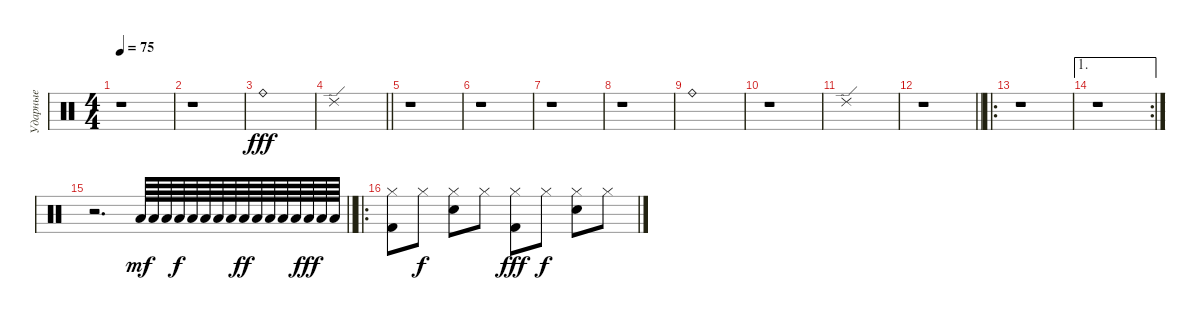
\track ("Ударные" "Ударные") {instrument percussion}
\staff
\articulation defaults
\ts (4 4)
\tempo 75
\clef neutral
\ks c
r.1{dy fff} |
r.1 |
"Ride (bell)".1 |
\barLineRight lightlight "Ride (edge) 2".1
|
r.1 |
r.1 |
r.1 |
r.1 |
"Ride (bell)".1 |
r.1 |
"Ride (edge) 2".1 |
\barLineRight lightlight
r.1 |
\ro
r.1 |
\ae 1
\rc 2
r.1 |
\barLineRight lightlight
r.2{d} "Low Tom (hit)".64{dy mf} "Low Tom (hit)".64 "Low Tom (hit)".64 "Low Tom (hit)".64{dy f} "Low Tom (hit)".64 "Low Tom (hit)".64 "Low Tom (hit)".64 "Low Tom (hit)".64 "Low Tom (hit)".64{dy ff} "Low Tom (hit)".64 "Low Tom (hit)".64 "Low Tom (hit)".64 "Low Tom (hit)".64 "Low Tom (hit)".64{dy fff} "Low Tom (hit)".64 "Low Tom (hit)".64 |
\ro
("Kick (hit) 2" "Hi-Hat (closed)").8 "Hi-Hat (closed)".8{dy f} ("Snare (hit) 2" "Hi-Hat (closed)").8 "Hi-Hat (closed)".8 ("Kick (hit) 2" "Hi-Hat (closed)").8{dy fff} "Hi-Hat (closed)".8{dy f} ("Snare (hit) 2" "Hi-Hat (closed)").8 "Hi-Hat (closed)".8
